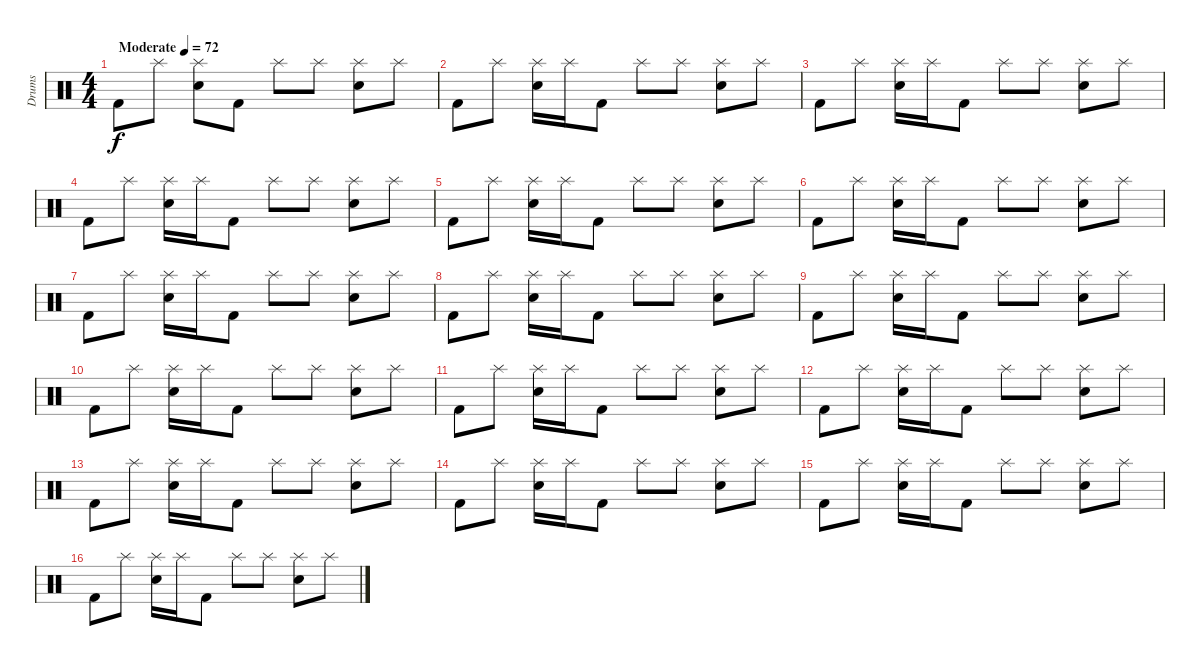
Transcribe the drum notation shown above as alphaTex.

\track ("Drums" "Drums") {instrument percussion}
\staff {score}
\articulation defaults
\ts (4 4)
\tempo (72 "Moderate")
\clef neutral
\ks c "Kick (hit) 2".8{dy f volume 16} "Splash (hit)".8
("Snare (hit) 2" "Splash (hit)").8 "Kick (hit) 2".8 "Splash (hit)".8 "Splash (hit)".8 ("Splash (hit)" "Snare (hit) 2").8 "Splash (hit)".8 |
"Kick (hit) 2".8 "Splash (hit)".8 ("Snare (hit) 2" "Splash (hit)").16 "Splash (hit)".16 "Kick (hit) 2".8 "Splash (hit)".8 "Splash (hit)".8 ("Splash (hit)" "Snare (hit) 2").8 "Splash (hit)".8 |
"Kick (hit) 2".8 "Splash (hit)".8 ("Snare (hit) 2" "Splash (hit)").16 "Splash (hit)".16 "Kick (hit) 2".8 "Splash (hit)".8 "Splash (hit)".8 ("Splash (hit)" "Snare (hit) 2").8 "Splash (hit)".8 |
"Kick (hit) 2".8 "Splash (hit)".8 ("Snare (hit) 2" "Splash (hit)").16 "Splash (hit)".16 "Kick (hit) 2".8 "Splash (hit)".8 "Splash (hit)".8 ("Splash (hit)" "Snare (hit) 2").8 "Splash (hit)".8 |
"Kick (hit) 2".8 "Splash (hit)".8 ("Snare (hit) 2" "Splash (hit)").16 "Splash (hit)".16 "Kick (hit) 2".8 "Splash (hit)".8 "Splash (hit)".8 ("Splash (hit)" "Snare (hit) 2").8 "Splash (hit)".8 |
"Kick (hit) 2".8 "Splash (hit)".8 ("Snare (hit) 2" "Splash (hit)").16 "Splash (hit)".16 "Kick (hit) 2".8 "Splash (hit)".8 "Splash (hit)".8 ("Splash (hit)" "Snare (hit) 2").8 "Splash (hit)".8 |
"Kick (hit) 2".8 "Splash (hit)".8 ("Snare (hit) 2" "Splash (hit)").16 "Splash (hit)".16 "Kick (hit) 2".8 "Splash (hit)".8 "Splash (hit)".8 ("Splash (hit)" "Snare (hit) 2").8 "Splash (hit)".8 |
"Kick (hit) 2".8 "Splash (hit)".8 ("Snare (hit) 2" "Splash (hit)").16 "Splash (hit)".16 "Kick (hit) 2".8 "Splash (hit)".8 "Splash (hit)".8 ("Splash (hit)" "Snare (hit) 2").8 "Splash (hit)".8 |
"Kick (hit) 2".8 "Splash (hit)".8 ("Snare (hit) 2" "Splash (hit)").16 "Splash (hit)".16 "Kick (hit) 2".8 "Splash (hit)".8 "Splash (hit)".8 ("Splash (hit)" "Snare (hit) 2").8 "Splash (hit)".8 |
"Kick (hit) 2".8 "Splash (hit)".8 ("Snare (hit) 2" "Splash (hit)").16 "Splash (hit)".16 "Kick (hit) 2".8 "Splash (hit)".8 "Splash (hit)".8 ("Splash (hit)" "Snare (hit) 2").8 "Splash (hit)".8 |
"Kick (hit) 2".8 "Splash (hit)".8 ("Snare (hit) 2" "Splash (hit)").16 "Splash (hit)".16 "Kick (hit) 2".8 "Splash (hit)".8 "Splash (hit)".8 ("Splash (hit)" "Snare (hit) 2").8 "Splash (hit)".8 |
"Kick (hit) 2".8 "Splash (hit)".8 ("Snare (hit) 2" "Splash (hit)").16 "Splash (hit)".16 "Kick (hit) 2".8 "Splash (hit)".8 "Splash (hit)".8 ("Splash (hit)" "Snare (hit) 2").8 "Splash (hit)".8 |
"Kick (hit) 2".8 "Splash (hit)".8 ("Snare (hit) 2" "Splash (hit)").16 "Splash (hit)".16 "Kick (hit) 2".8 "Splash (hit)".8 "Splash (hit)".8 ("Splash (hit)" "Snare (hit) 2").8 "Splash (hit)".8 |
"Kick (hit) 2".8 "Splash (hit)".8 ("Snare (hit) 2" "Splash (hit)").16 "Splash (hit)".16 "Kick (hit) 2".8 "Splash (hit)".8 "Splash (hit)".8 ("Splash (hit)" "Snare (hit) 2").8 "Splash (hit)".8 |
"Kick (hit) 2".8 "Splash (hit)".8 ("Snare (hit) 2" "Splash (hit)").16 "Splash (hit)".16 "Kick (hit) 2".8 "Splash (hit)".8 "Splash (hit)".8 ("Splash (hit)" "Snare (hit) 2").8 "Splash (hit)".8 |
"Kick (hit) 2".8 "Splash (hit)".8 ("Snare (hit) 2" "Splash (hit)").16 "Splash (hit)".16 "Kick (hit) 2".8 "Splash (hit)".8 "Splash (hit)".8 ("Splash (hit)" "Snare (hit) 2").8 "Splash (hit)".8
